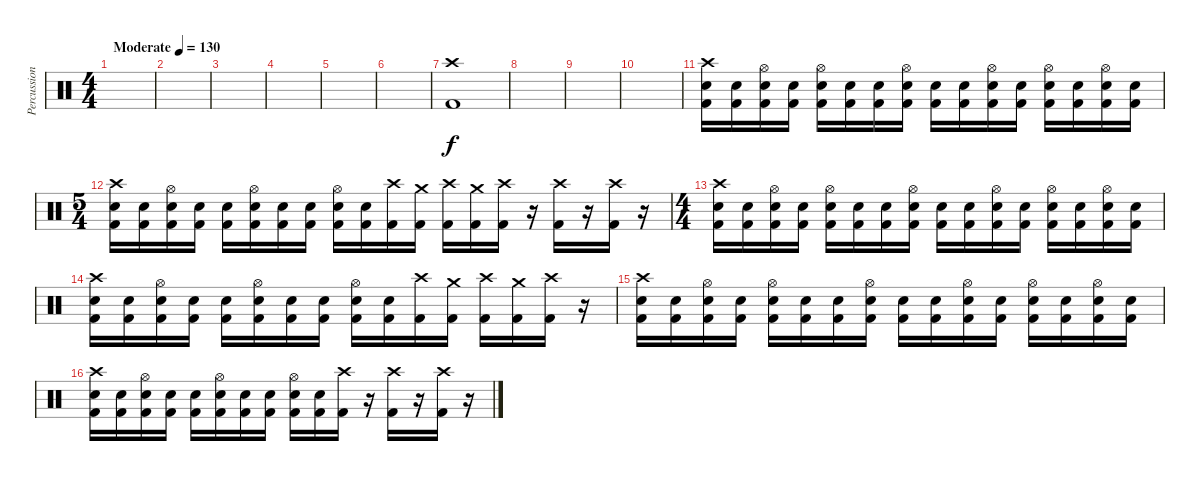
\track ("Percussion" "Percussion") {instrument percussion}
\staff {score}
\articulation defaults
\ts (4 4)
\tempo (130 "Moderate")
\clef neutral
\ks c
|
|
|
|
|
|
("Crash high (hit)" "Kick (hit) 2").1 |
|
|
|
("Electric Snare (hit)" "Crash high (hit)" "Kick (hit) 2").16 ("Electric Snare (hit)" "Kick (hit) 2").16 ("Electric Snare (hit)" "Hi-Hat (open)" "Kick (hit) 2").16 ("Electric Snare (hit)" "Kick (hit) 2").16 ("Electric Snare (hit)" "Hi-Hat (open)" "Kick (hit) 2").16 ("Electric Snare (hit)" "Kick (hit) 2").16 ("Electric Snare (hit)" "Kick (hit) 2").16 ("Electric Snare (hit)" "Hi-Hat (open)" "Kick (hit) 2").16 ("Electric Snare (hit)" "Kick (hit) 2").16 ("Electric Snare (hit)" "Kick (hit) 2").16 ("Electric Snare (hit)" "Hi-Hat (open)" "Kick (hit) 2").16 ("Electric Snare (hit)" "Kick (hit) 2").16 ("Electric Snare (hit)" "Hi-Hat (open)" "Kick (hit) 2").16 ("Electric Snare (hit)" "Kick (hit) 2").16 ("Electric Snare (hit)" "Hi-Hat (open)" "Kick (hit) 2").16 ("Electric Snare (hit)" "Kick (hit) 2").16 |
\ts (5 4)
("Electric Snare (hit)" "Crash high (hit)" "Kick (hit) 2").16 ("Electric Snare (hit)" "Kick (hit) 2").16 ("Electric Snare (hit)" "Hi-Hat (open)" "Kick (hit) 2").16 ("Electric Snare (hit)" "Kick (hit) 2").16 ("Electric Snare (hit)" "Kick (hit) 2").16 ("Electric Snare (hit)" "Hi-Hat (open)" "Kick (hit) 2").16 ("Electric Snare (hit)" "Kick (hit) 2").16 ("Electric Snare (hit)" "Kick (hit) 2").16 ("Electric Snare (hit)" "Hi-Hat (open)" "Kick (hit) 2").16 ("Electric Snare (hit)" "Kick (hit) 2").16 ("Crash high (hit)" "Kick (hit) 2").16 ("Crash medium (hit)" "Kick (hit) 2").16 ("Crash high (hit)" "Kick (hit) 2").16 ("Crash medium (hit)" "Kick (hit) 2").16 ("Crash high (hit)" "Kick (hit) 2").16 r.16{volume 0} ("Crash high (hit)" "Kick (hit) 2").16{volume 13} r.16{volume 0} ("Crash high (hit)" "Kick (hit) 2").16{volume 13} r.16{volume 13} |
\ts (4 4)
("Electric Snare (hit)" "Crash high (hit)" "Kick (hit) 2").16 ("Electric Snare (hit)" "Kick (hit) 2").16 ("Electric Snare (hit)" "Hi-Hat (open)" "Kick (hit) 2").16 ("Electric Snare (hit)" "Kick (hit) 2").16 ("Electric Snare (hit)" "Hi-Hat (open)" "Kick (hit) 2").16 ("Electric Snare (hit)" "Kick (hit) 2").16 ("Electric Snare (hit)" "Kick (hit) 2").16 ("Electric Snare (hit)" "Hi-Hat (open)" "Kick (hit) 2").16 ("Electric Snare (hit)" "Kick (hit) 2").16 ("Electric Snare (hit)" "Kick (hit) 2").16 ("Electric Snare (hit)" "Hi-Hat (open)" "Kick (hit) 2").16 ("Electric Snare (hit)" "Kick (hit) 2").16 ("Electric Snare (hit)" "Hi-Hat (open)" "Kick (hit) 2").16 ("Electric Snare (hit)" "Kick (hit) 2").16 ("Electric Snare (hit)" "Hi-Hat (open)" "Kick (hit) 2").16 ("Electric Snare (hit)" "Kick (hit) 2").16 |
("Electric Snare (hit)" "Crash high (hit)" "Kick (hit) 2").16 ("Electric Snare (hit)" "Kick (hit) 2").16 ("Electric Snare (hit)" "Hi-Hat (open)" "Kick (hit) 2").16 ("Electric Snare (hit)" "Kick (hit) 2").16 ("Electric Snare (hit)" "Kick (hit) 2").16 ("Electric Snare (hit)" "Hi-Hat (open)" "Kick (hit) 2").16 ("Electric Snare (hit)" "Kick (hit) 2").16 ("Electric Snare (hit)" "Kick (hit) 2").16 ("Electric Snare (hit)" "Hi-Hat (open)" "Kick (hit) 2").16 ("Electric Snare (hit)" "Kick (hit) 2").16 ("Crash high (hit)" "Kick (hit) 2").16 ("Crash medium (hit)" "Kick (hit) 2").16 ("Crash high (hit)" "Kick (hit) 2").16 ("Crash medium (hit)" "Kick (hit) 2").16 ("Crash high (hit)" "Kick (hit) 2").16 r.16{volume 0} |
("Electric Snare (hit)" "Crash high (hit)" "Kick (hit) 2").16{volume 13} ("Electric Snare (hit)" "Kick (hit) 2").16 ("Electric Snare (hit)" "Hi-Hat (open)" "Kick (hit) 2").16 ("Electric Snare (hit)" "Kick (hit) 2").16 ("Electric Snare (hit)" "Hi-Hat (open)" "Kick (hit) 2").16 ("Electric Snare (hit)" "Kick (hit) 2").16 ("Electric Snare (hit)" "Kick (hit) 2").16 ("Electric Snare (hit)" "Hi-Hat (open)" "Kick (hit) 2").16 ("Electric Snare (hit)" "Kick (hit) 2").16 ("Electric Snare (hit)" "Kick (hit) 2").16 ("Electric Snare (hit)" "Hi-Hat (open)" "Kick (hit) 2").16 ("Electric Snare (hit)" "Kick (hit) 2").16 ("Electric Snare (hit)" "Hi-Hat (open)" "Kick (hit) 2").16 ("Electric Snare (hit)" "Kick (hit) 2").16 ("Electric Snare (hit)" "Hi-Hat (open)" "Kick (hit) 2").16 ("Electric Snare (hit)" "Kick (hit) 2").16 |
("Electric Snare (hit)" "Crash high (hit)" "Kick (hit) 2").16 ("Electric Snare (hit)" "Kick (hit) 2").16 ("Electric Snare (hit)" "Hi-Hat (open)" "Kick (hit) 2").16 ("Electric Snare (hit)" "Kick (hit) 2").16 ("Electric Snare (hit)" "Kick (hit) 2").16 ("Electric Snare (hit)" "Hi-Hat (open)" "Kick (hit) 2").16 ("Electric Snare (hit)" "Kick (hit) 2").16 ("Electric Snare (hit)" "Kick (hit) 2").16 ("Electric Snare (hit)" "Hi-Hat (open)" "Kick (hit) 2").16 ("Electric Snare (hit)" "Kick (hit) 2").16 ("Crash high (hit)" "Kick (hit) 2").16 r.16{volume 0} ("Crash high (hit)" "Kick (hit) 2").16{volume 13} r.16{volume 0} ("Crash high (hit)" "Kick (hit) 2").16{volume 13} r.16{volume 13}
